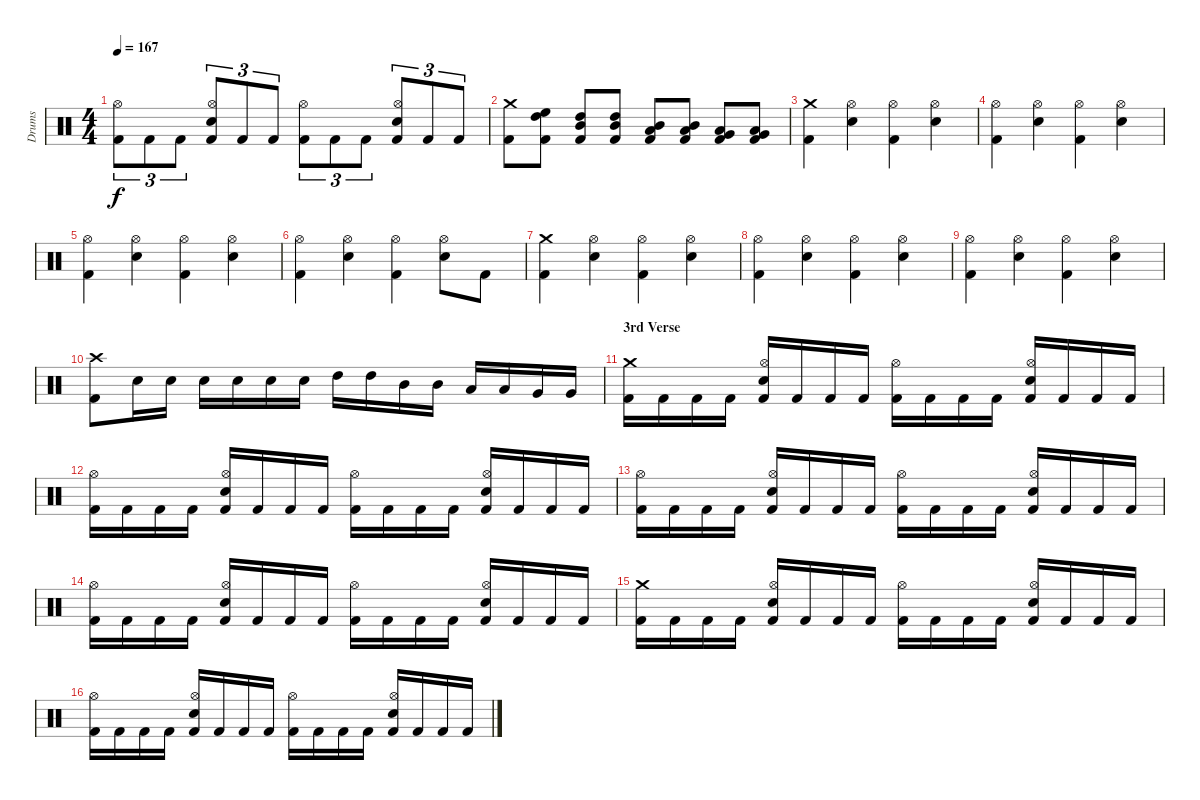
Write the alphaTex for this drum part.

\track ("Drums" "Drums") {instrument percussion}
\staff {score}
\articulation defaults
\ts (4 4)
\tempo 167
\clef neutral
\ks c
("Kick (hit) 2" "Hi-Hat (open)").8{tu (3 2) dy f} "Kick (hit) 2".8{tu (3 2)} "Kick (hit) 2".8{tu (3 2)} ("Kick (hit) 2" "Electric Snare (hit)" "Hi-Hat (open)").8{tu (3 2)} "Kick (hit) 2".8{tu (3 2)} "Kick (hit) 2".8{tu (3 2)} ("Kick (hit) 2" "Hi-Hat (open)").8{tu (3 2)} "Kick (hit) 2".8{tu (3 2)} "Kick (hit) 2".8{tu (3 2)} ("Kick (hit) 2" "Electric Snare (hit)" "Hi-Hat (open)").8{tu (3 2)} "Kick (hit) 2".8{tu (3 2)} "Kick (hit) 2".8{tu (3 2)} |
("Kick (hit) 2" "Crash medium (hit)").8 ("Kick (hit) 2" "High Floor Tom (hit)" "High Tom (hit)").8 ("Kick (hit) 2" "High Tom (hit)" "Mid Tom (hit)").8 ("Kick (hit) 2" "High Tom (hit)" "Mid Tom (hit)").8 ("Kick (hit) 2" "Mid Tom (hit)" "Low Tom (hit)").8 ("Kick (hit) 2" "Mid Tom (hit)" "Low Tom (hit)").8 ("Kick (hit) 2" "Low Tom (hit)" "Very Low Tom (hit)").8 ("Kick (hit) 2" "Low Tom (hit)" "Very Low Tom (hit)").8 |
("Kick (hit) 2" "Crash medium (hit)").4 ("Electric Snare (hit)" "Hi-Hat (open)").4 ("Kick (hit) 2" "Hi-Hat (open)").4 ("Electric Snare (hit)" "Hi-Hat (open)").4 |
("Kick (hit) 2" "Hi-Hat (open)").4 ("Electric Snare (hit)" "Hi-Hat (open)").4 ("Kick (hit) 2" "Hi-Hat (open)").4 ("Electric Snare (hit)" "Hi-Hat (open)").4 |
("Kick (hit) 2" "Hi-Hat (open)").4 ("Electric Snare (hit)" "Hi-Hat (open)").4 ("Kick (hit) 2" "Hi-Hat (open)").4 ("Electric Snare (hit)" "Hi-Hat (open)").4 |
("Kick (hit) 2" "Hi-Hat (open)").4 ("Electric Snare (hit)" "Hi-Hat (open)").4 ("Kick (hit) 2" "Hi-Hat (open)").4 ("Electric Snare (hit)" "Hi-Hat (open)").8 "Kick (hit) 2".8 |
("Kick (hit) 2" "Crash medium (hit)").4 ("Electric Snare (hit)" "Hi-Hat (open)").4 ("Kick (hit) 2" "Hi-Hat (open)").4 ("Electric Snare (hit)" "Hi-Hat (open)").4 |
("Kick (hit) 2" "Hi-Hat (open)").4 ("Electric Snare (hit)" "Hi-Hat (open)").4 ("Kick (hit) 2" "Hi-Hat (open)").4 ("Electric Snare (hit)" "Hi-Hat (open)").4 |
("Kick (hit) 2" "Hi-Hat (open)").4 ("Electric Snare (hit)" "Hi-Hat (open)").4 ("Kick (hit) 2" "Hi-Hat (open)").4 ("Electric Snare (hit)" "Hi-Hat (open)").4 |
("Kick (hit) 2" "Crash high (hit)").8 "Electric Snare (hit)".16 "Electric Snare (hit)".16 "Electric Snare (hit)".16 "Electric Snare (hit)".16 "Electric Snare (hit)".16 "Electric Snare (hit)".16 "High Tom (hit)".16 "High Tom (hit)".16 "Mid Tom (hit)".16 "Mid Tom (hit)".16 "Low Tom (hit)".16 "Low Tom (hit)".16 "Very Low Tom (hit)".16 "Very Low Tom (hit)".16 |
\section ("" "3rd Verse")
("Kick (hit) 2" "Crash medium (hit)").16 "Kick (hit) 2".16 "Kick (hit) 2".16 "Kick (hit) 2".16 ("Kick (hit) 2" "Electric Snare (hit)" "Hi-Hat (open)").16 "Kick (hit) 2".16 "Kick (hit) 2".16 "Kick (hit) 2".16 ("Kick (hit) 2" "Hi-Hat (open)").16 "Kick (hit) 2".16 "Kick (hit) 2".16 "Kick (hit) 2".16 ("Kick (hit) 2" "Electric Snare (hit)" "Hi-Hat (open)").16 "Kick (hit) 2".16 "Kick (hit) 2".16 "Kick (hit) 2".16 |
("Kick (hit) 2" "Hi-Hat (open)").16 "Kick (hit) 2".16 "Kick (hit) 2".16 "Kick (hit) 2".16 ("Kick (hit) 2" "Electric Snare (hit)" "Hi-Hat (open)").16 "Kick (hit) 2".16 "Kick (hit) 2".16 "Kick (hit) 2".16 ("Kick (hit) 2" "Hi-Hat (open)").16 "Kick (hit) 2".16 "Kick (hit) 2".16 "Kick (hit) 2".16 ("Kick (hit) 2" "Electric Snare (hit)" "Hi-Hat (open)").16 "Kick (hit) 2".16 "Kick (hit) 2".16 "Kick (hit) 2".16 |
("Kick (hit) 2" "Hi-Hat (open)").16 "Kick (hit) 2".16 "Kick (hit) 2".16 "Kick (hit) 2".16 ("Kick (hit) 2" "Electric Snare (hit)" "Hi-Hat (open)").16 "Kick (hit) 2".16 "Kick (hit) 2".16 "Kick (hit) 2".16 ("Kick (hit) 2" "Hi-Hat (open)").16 "Kick (hit) 2".16 "Kick (hit) 2".16 "Kick (hit) 2".16 ("Kick (hit) 2" "Electric Snare (hit)" "Hi-Hat (open)").16 "Kick (hit) 2".16 "Kick (hit) 2".16 "Kick (hit) 2".16 |
("Kick (hit) 2" "Hi-Hat (open)").16 "Kick (hit) 2".16 "Kick (hit) 2".16 "Kick (hit) 2".16 ("Kick (hit) 2" "Electric Snare (hit)" "Hi-Hat (open)").16 "Kick (hit) 2".16 "Kick (hit) 2".16 "Kick (hit) 2".16 ("Kick (hit) 2" "Hi-Hat (open)").16 "Kick (hit) 2".16 "Kick (hit) 2".16 "Kick (hit) 2".16 ("Kick (hit) 2" "Electric Snare (hit)" "Hi-Hat (open)").16 "Kick (hit) 2".16 "Kick (hit) 2".16 "Kick (hit) 2".16 |
("Kick (hit) 2" "Crash medium (hit)").16 "Kick (hit) 2".16 "Kick (hit) 2".16 "Kick (hit) 2".16 ("Kick (hit) 2" "Electric Snare (hit)" "Hi-Hat (open)").16 "Kick (hit) 2".16 "Kick (hit) 2".16 "Kick (hit) 2".16 ("Kick (hit) 2" "Hi-Hat (open)").16 "Kick (hit) 2".16 "Kick (hit) 2".16 "Kick (hit) 2".16 ("Kick (hit) 2" "Electric Snare (hit)" "Hi-Hat (open)").16 "Kick (hit) 2".16 "Kick (hit) 2".16 "Kick (hit) 2".16 |
("Kick (hit) 2" "Hi-Hat (open)").16 "Kick (hit) 2".16 "Kick (hit) 2".16 "Kick (hit) 2".16 ("Kick (hit) 2" "Electric Snare (hit)" "Hi-Hat (open)").16 "Kick (hit) 2".16 "Kick (hit) 2".16 "Kick (hit) 2".16 ("Kick (hit) 2" "Hi-Hat (open)").16 "Kick (hit) 2".16 "Kick (hit) 2".16 "Kick (hit) 2".16 ("Kick (hit) 2" "Electric Snare (hit)" "Hi-Hat (open)").16 "Kick (hit) 2".16 "Kick (hit) 2".16 "Kick (hit) 2".16
